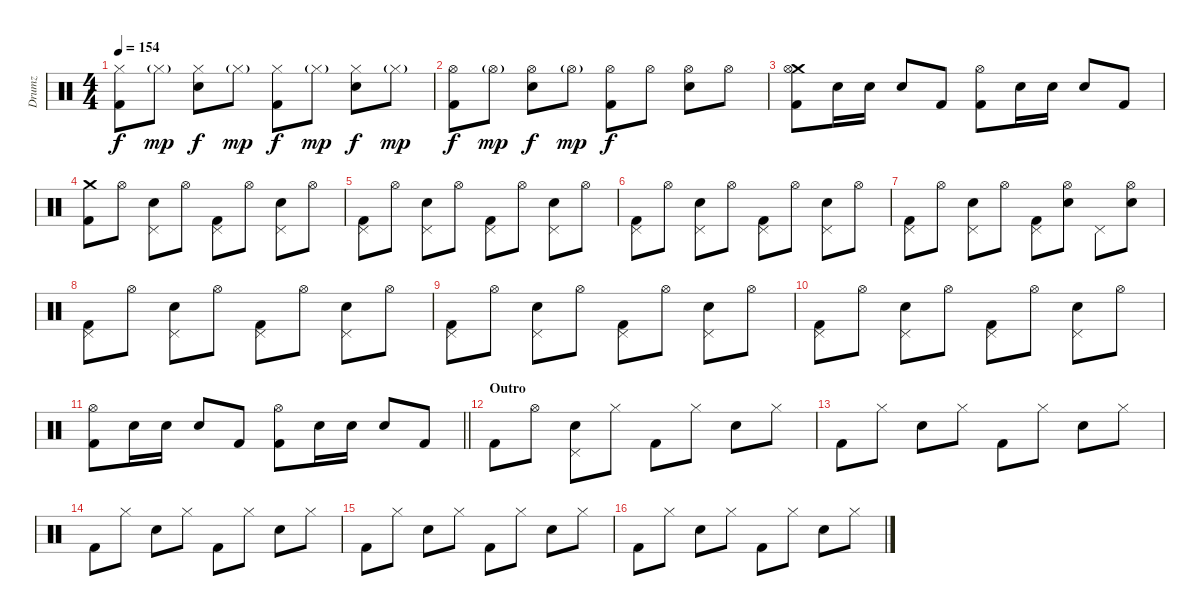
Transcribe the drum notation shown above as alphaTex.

\track ("Drumz" "Drumz") {instrument percussion}
\staff {score}
\articulation defaults
\ts (4 4)
\tempo 154
\clef neutral
\ks c
("Hi-Hat (closed)" "Kick (hit) 2").8{dy f} "Hi-Hat (closed)"{g}.8{dy mp} ("Hi-Hat (closed)" "Electric Snare (hit)").8{dy f} "Hi-Hat (closed)"{g}.8{dy mp} ("Hi-Hat (closed)" "Kick (hit) 2").8{dy f} "Hi-Hat (closed)"{g}.8{dy mp} ("Hi-Hat (closed)" "Electric Snare (hit)").8{dy f} "Hi-Hat (closed)"{g}.8{dy mp} |
("Hi-Hat (open)" "Kick (hit) 2").8{dy f} "Hi-Hat (open)"{g}.8{dy mp} ("Hi-Hat (open)" "Electric Snare (hit)").8{dy f} "Hi-Hat (open)"{g}.8{dy mp} ("Hi-Hat (open)" "Kick (hit) 2").8{dy f} "Hi-Hat (open)".8 ("Hi-Hat (open)" "Electric Snare (hit)").8 "Hi-Hat (open)".8 |
("Crash medium (hit)" "Hi-Hat (open)" "Kick (hit) 2").8 "Electric Snare (hit)".16 "Electric Snare (hit)".16 "Electric Snare (hit)".8 "Kick (hit) 2".8 ("Hi-Hat (open)" "Kick (hit) 2").8 "Electric Snare (hit)".16 "Electric Snare (hit)".16 "Electric Snare (hit)".8 "Kick (hit) 2".8 |
("Crash medium (hit)" "Kick (hit) 2").8 "Hi-Hat (open)".8 ("Pedal Hi-Hat (hit)" "Electric Snare (hit)").8 "Hi-Hat (open)".8 ("Pedal Hi-Hat (hit)" "Kick (hit) 2").8 "Hi-Hat (open)".8 ("Pedal Hi-Hat (hit)" "Electric Snare (hit)").8 "Hi-Hat (open)".8 |
("Pedal Hi-Hat (hit)" "Kick (hit) 2").8 "Hi-Hat (open)".8 ("Pedal Hi-Hat (hit)" "Electric Snare (hit)").8 "Hi-Hat (open)".8 ("Pedal Hi-Hat (hit)" "Kick (hit) 2").8 "Hi-Hat (open)".8 ("Pedal Hi-Hat (hit)" "Electric Snare (hit)").8 "Hi-Hat (open)".8 |
("Pedal Hi-Hat (hit)" "Kick (hit) 2").8 "Hi-Hat (open)".8 ("Pedal Hi-Hat (hit)" "Electric Snare (hit)").8 "Hi-Hat (open)".8 ("Pedal Hi-Hat (hit)" "Kick (hit) 2").8 "Hi-Hat (open)".8 ("Pedal Hi-Hat (hit)" "Electric Snare (hit)").8 "Hi-Hat (open)".8 |
("Pedal Hi-Hat (hit)" "Kick (hit) 2").8 "Hi-Hat (open)".8 ("Pedal Hi-Hat (hit)" "Electric Snare (hit)").8 "Hi-Hat (open)".8 ("Pedal Hi-Hat (hit)" "Kick (hit) 2").8 ("Hi-Hat (open)" "Electric Snare (hit)").8 "Pedal Hi-Hat (hit)".8 ("Hi-Hat (open)" "Electric Snare (hit)").8 |
("Pedal Hi-Hat (hit)" "Kick (hit) 2").8 "Hi-Hat (open)".8 ("Pedal Hi-Hat (hit)" "Electric Snare (hit)").8 "Hi-Hat (open)".8 ("Pedal Hi-Hat (hit)" "Kick (hit) 2").8 "Hi-Hat (open)".8 ("Pedal Hi-Hat (hit)" "Electric Snare (hit)").8 "Hi-Hat (open)".8 |
("Pedal Hi-Hat (hit)" "Kick (hit) 2").8 "Hi-Hat (open)".8 ("Pedal Hi-Hat (hit)" "Electric Snare (hit)").8 "Hi-Hat (open)".8 ("Pedal Hi-Hat (hit)" "Kick (hit) 2").8 "Hi-Hat (open)".8 ("Pedal Hi-Hat (hit)" "Electric Snare (hit)").8 "Hi-Hat (open)".8 |
("Pedal Hi-Hat (hit)" "Kick (hit) 2").8 "Hi-Hat (open)".8 ("Pedal Hi-Hat (hit)" "Electric Snare (hit)").8 "Hi-Hat (open)".8 ("Pedal Hi-Hat (hit)" "Kick (hit) 2").8 "Hi-Hat (open)".8 ("Pedal Hi-Hat (hit)" "Electric Snare (hit)").8 "Hi-Hat (open)".8 |
\barLineRight lightlight
("Hi-Hat (open)" "Kick (hit) 2").8 "Electric Snare (hit)".16 "Electric Snare (hit)".16 "Electric Snare (hit)".8 "Kick (hit) 2".8 ("Hi-Hat (open)" "Kick (hit) 2").8 "Electric Snare (hit)".16 "Electric Snare (hit)".16 "Electric Snare (hit)".8 "Kick (hit) 2".8 |
\section ("" "Outro")
"Kick (hit) 2".8 "Hi-Hat (open)".8 ("Pedal Hi-Hat (hit)" "Electric Snare (hit)").8 "Hi-Hat (closed)".8 "Kick (hit) 2".8 "Hi-Hat (closed)".8 "Electric Snare (hit)".8 "Hi-Hat (closed)".8 |
"Kick (hit) 2".8 "Hi-Hat (closed)".8 "Electric Snare (hit)".8 "Hi-Hat (closed)".8 "Kick (hit) 2".8 "Hi-Hat (closed)".8 "Electric Snare (hit)".8 "Hi-Hat (closed)".8 |
"Kick (hit) 2".8 "Hi-Hat (closed)".8 "Electric Snare (hit)".8 "Hi-Hat (closed)".8 "Kick (hit) 2".8 "Hi-Hat (closed)".8 "Electric Snare (hit)".8 "Hi-Hat (closed)".8 |
"Kick (hit) 2".8 "Hi-Hat (closed)".8 "Electric Snare (hit)".8 "Hi-Hat (closed)".8 "Kick (hit) 2".8 "Hi-Hat (closed)".8 "Electric Snare (hit)".8 "Hi-Hat (closed)".8 |
"Kick (hit) 2".8 "Hi-Hat (closed)".8 "Electric Snare (hit)".8 "Hi-Hat (closed)".8 "Kick (hit) 2".8 "Hi-Hat (closed)".8 "Electric Snare (hit)".8 "Hi-Hat (closed)".8
